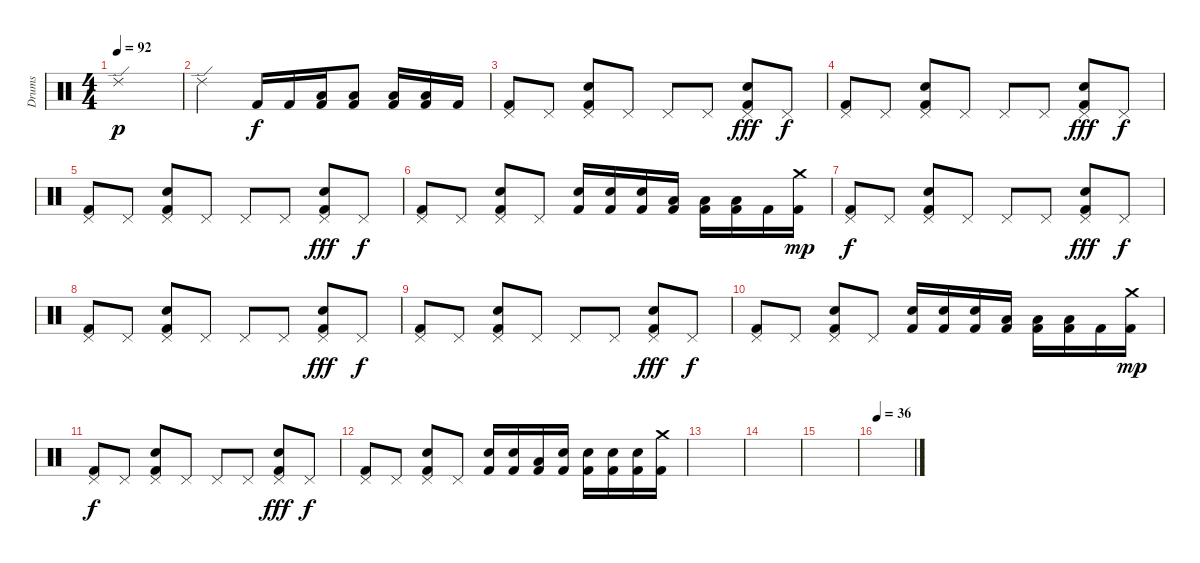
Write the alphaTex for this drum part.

\track ("Drums" "Drums") {instrument percussion}
\staff {score}
\articulation defaults
\ts (4 4)
\tempo 92
\clef neutral
\ks c "Ride (edge) 2".1{dy p}
|
"Ride (edge) 2".2 "Kick (hit) 2".16{dy f} "Kick (hit) 2".16 ("Low Floor Tom (hit)" "Kick (hit) 2").16 ("Low Floor Tom (hit)" "Kick (hit) 2").8 ("Low Floor Tom (hit)" "Kick (hit) 2").16 ("Low Floor Tom (hit)" "Kick (hit) 2").16 "Kick (hit) 2".16 |
("Pedal Hi-Hat (hit)" "Kick (hit) 2").8 "Pedal Hi-Hat (hit)".8 ("Pedal Hi-Hat (hit)" "Kick (hit) 2" "Snare (hit) 2").8 "Pedal Hi-Hat (hit)".8 "Pedal Hi-Hat (hit)".8 "Pedal Hi-Hat (hit)".8 ("Pedal Hi-Hat (hit)" "Snare (hit) 2" "Kick (hit) 2").8{dy fff} "Pedal Hi-Hat (hit)".8{dy f} |
("Pedal Hi-Hat (hit)" "Kick (hit) 2").8 "Pedal Hi-Hat (hit)".8 ("Pedal Hi-Hat (hit)" "Kick (hit) 2" "Snare (hit) 2").8 "Pedal Hi-Hat (hit)".8 "Pedal Hi-Hat (hit)".8 "Pedal Hi-Hat (hit)".8 ("Pedal Hi-Hat (hit)" "Snare (hit) 2" "Kick (hit) 2").8{dy fff} "Pedal Hi-Hat (hit)".8{dy f} |
("Pedal Hi-Hat (hit)" "Kick (hit) 2").8 "Pedal Hi-Hat (hit)".8 ("Pedal Hi-Hat (hit)" "Kick (hit) 2" "Snare (hit) 2").8 "Pedal Hi-Hat (hit)".8 "Pedal Hi-Hat (hit)".8 "Pedal Hi-Hat (hit)".8 ("Pedal Hi-Hat (hit)" "Snare (hit) 2" "Kick (hit) 2").8{dy fff} "Pedal Hi-Hat (hit)".8{dy f} |
("Pedal Hi-Hat (hit)" "Kick (hit) 2").8 "Pedal Hi-Hat (hit)".8 ("Pedal Hi-Hat (hit)" "Kick (hit) 2" "Snare (hit) 2").8 "Pedal Hi-Hat (hit)".8 ("Snare (hit) 2" "Kick (hit) 2").16 ("Snare (hit) 2" "Kick (hit) 2").16 ("Snare (hit) 2" "Kick (hit) 2").16 ("Low Floor Tom (hit)" "Kick (hit) 2").16 ("Low Floor Tom (hit)" "Kick (hit) 2").16 ("Low Floor Tom (hit)" "Kick (hit) 2").16 "Kick (hit) 2".16 ("Crash medium (hit)" "Kick (hit) 2").16{dy mp} |
("Pedal Hi-Hat (hit)" "Kick (hit) 2").8{dy f} "Pedal Hi-Hat (hit)".8 ("Pedal Hi-Hat (hit)" "Kick (hit) 2" "Snare (hit) 2").8 "Pedal Hi-Hat (hit)".8 "Pedal Hi-Hat (hit)".8 "Pedal Hi-Hat (hit)".8 ("Pedal Hi-Hat (hit)" "Snare (hit) 2" "Kick (hit) 2").8{dy fff} "Pedal Hi-Hat (hit)".8{dy f} |
("Pedal Hi-Hat (hit)" "Kick (hit) 2").8 "Pedal Hi-Hat (hit)".8 ("Pedal Hi-Hat (hit)" "Kick (hit) 2" "Snare (hit) 2").8 "Pedal Hi-Hat (hit)".8 "Pedal Hi-Hat (hit)".8 "Pedal Hi-Hat (hit)".8 ("Pedal Hi-Hat (hit)" "Snare (hit) 2" "Kick (hit) 2").8{dy fff} "Pedal Hi-Hat (hit)".8{dy f} |
("Pedal Hi-Hat (hit)" "Kick (hit) 2").8 "Pedal Hi-Hat (hit)".8 ("Pedal Hi-Hat (hit)" "Kick (hit) 2" "Snare (hit) 2").8 "Pedal Hi-Hat (hit)".8 "Pedal Hi-Hat (hit)".8 "Pedal Hi-Hat (hit)".8 ("Pedal Hi-Hat (hit)" "Snare (hit) 2" "Kick (hit) 2").8{dy fff} "Pedal Hi-Hat (hit)".8{dy f} |
("Pedal Hi-Hat (hit)" "Kick (hit) 2").8 "Pedal Hi-Hat (hit)".8 ("Pedal Hi-Hat (hit)" "Kick (hit) 2" "Snare (hit) 2").8 "Pedal Hi-Hat (hit)".8 ("Snare (hit) 2" "Kick (hit) 2").16 ("Snare (hit) 2" "Kick (hit) 2").16 ("Snare (hit) 2" "Kick (hit) 2").16 ("Low Floor Tom (hit)" "Kick (hit) 2").16 ("Low Floor Tom (hit)" "Kick (hit) 2").16 ("Low Floor Tom (hit)" "Kick (hit) 2").16 "Kick (hit) 2".16 ("Crash medium (hit)" "Kick (hit) 2").16{dy mp} |
("Pedal Hi-Hat (hit)" "Kick (hit) 2").8{dy f} "Pedal Hi-Hat (hit)".8 ("Pedal Hi-Hat (hit)" "Kick (hit) 2" "Snare (hit) 2").8 "Pedal Hi-Hat (hit)".8 "Pedal Hi-Hat (hit)".8 "Pedal Hi-Hat (hit)".8 ("Pedal Hi-Hat (hit)" "Snare (hit) 2" "Kick (hit) 2").8{dy fff} "Pedal Hi-Hat (hit)".8{dy f} |
("Pedal Hi-Hat (hit)" "Kick (hit) 2").8 "Pedal Hi-Hat (hit)".8 ("Pedal Hi-Hat (hit)" "Kick (hit) 2" "Snare (hit) 2").8 "Pedal Hi-Hat (hit)".8 ("Snare (hit) 2" "Kick (hit) 2").16 ("Snare (hit) 2" "Kick (hit) 2").16 ("Low Floor Tom (hit)" "Kick (hit) 2").16 ("Snare (hit) 2" "Kick (hit) 2").16 ("Snare (hit) 2" "Kick (hit) 2").16 ("Snare (hit) 2" "Kick (hit) 2").16 ("Snare (hit) 2" "Kick (hit) 2").16 ("Crash medium (hit)" "Kick (hit) 2").16 |
|
|
|
\tempo 36
